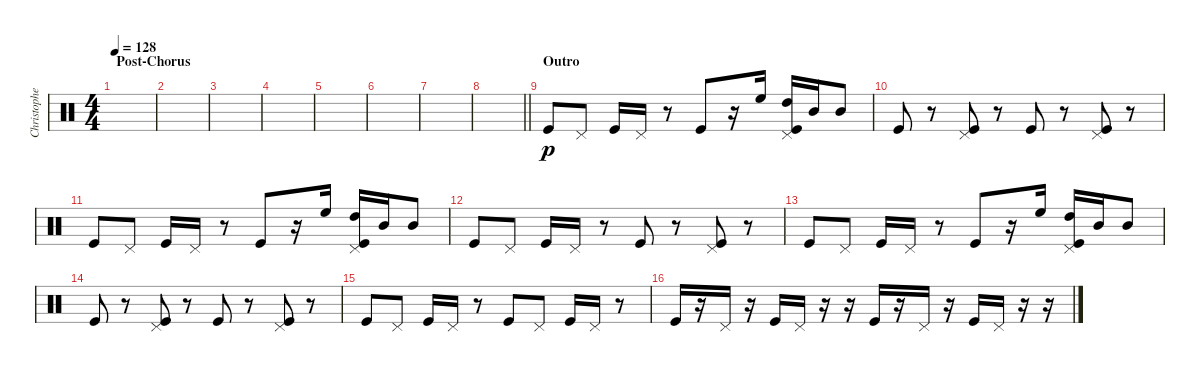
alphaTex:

\track ("Christopher - Drum Effects" "Christophe") {instrument percussion}
\staff {score}
\articulation defaults
\ts (4 4)
\section ("" "Post-Chorus")
\tempo 128
\clef neutral
\ks c
|
|
|
|
|
|
|
\barLineRight lightlight
|
\section ("" "Outro")
"Kick (hit)".8{dy p} "Pedal Hi-Hat (hit)".8 "Kick (hit)".16 "Pedal Hi-Hat (hit)".16 r.8 "Kick (hit)".8 r.16 "High Floor Tom (hit)".16 ("Pedal Hi-Hat (hit)" "High Tom (hit)" "Kick (hit)").16 "Mid Tom (hit)".16 "Mid Tom (hit)".8 |
"Kick (hit)".8 r.8 ("Pedal Hi-Hat (hit)" "Kick (hit)").8 r.8 "Kick (hit)".8 r.8 ("Pedal Hi-Hat (hit)" "Kick (hit)").8 r.8 |
"Kick (hit)".8 "Pedal Hi-Hat (hit)".8 "Kick (hit)".16 "Pedal Hi-Hat (hit)".16 r.8 "Kick (hit)".8 r.16 "High Floor Tom (hit)".16 ("Pedal Hi-Hat (hit)" "High Tom (hit)" "Kick (hit)").16 "Mid Tom (hit)".16 "Mid Tom (hit)".8 |
"Kick (hit)".8 "Pedal Hi-Hat (hit)".8 "Kick (hit)".16 "Pedal Hi-Hat (hit)".16 r.8 "Kick (hit)".8 r.8 ("Pedal Hi-Hat (hit)" "Kick (hit)").8 r.8 |
"Kick (hit)".8 "Pedal Hi-Hat (hit)".8 "Kick (hit)".16 "Pedal Hi-Hat (hit)".16 r.8 "Kick (hit)".8 r.16 "High Floor Tom (hit)".16 ("Pedal Hi-Hat (hit)" "High Tom (hit)" "Kick (hit)").16 "Mid Tom (hit)".16 "Mid Tom (hit)".8 |
"Kick (hit)".8 r.8 ("Pedal Hi-Hat (hit)" "Kick (hit)").8 r.8 "Kick (hit)".8 r.8 ("Pedal Hi-Hat (hit)" "Kick (hit)").8 r.8 |
"Kick (hit)".8 "Pedal Hi-Hat (hit)".8 "Kick (hit)".16 "Pedal Hi-Hat (hit)".16 r.8 "Kick (hit)".8 "Pedal Hi-Hat (hit)".8 "Kick (hit)".16 "Pedal Hi-Hat (hit)".16 r.8 |
"Kick (hit)".16 r.16 "Pedal Hi-Hat (hit)".16 r.16 "Kick (hit)".16 "Pedal Hi-Hat (hit)".16 r.16 r.16 "Kick (hit)".16 r.16 "Pedal Hi-Hat (hit)".16 r.16 "Kick (hit)".16 "Pedal Hi-Hat (hit)".16 r.16 r.16
